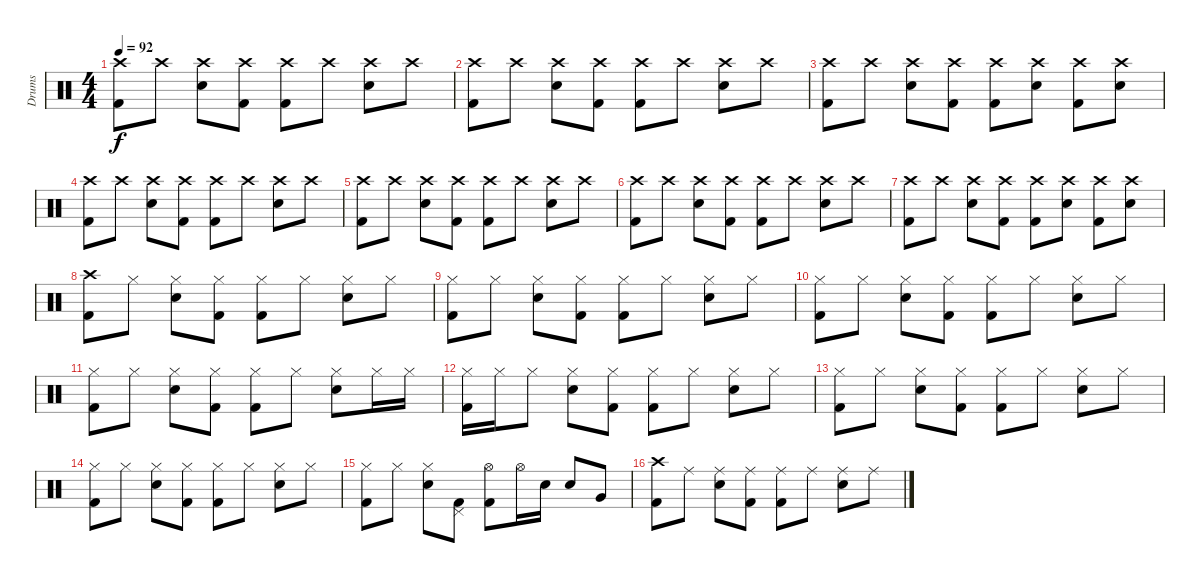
\track ("Drums" "Drums") {instrument percussion}
\staff {score}
\articulation defaults
\ts (4 4)
\tempo 92
\clef neutral
\ks c
("Crash high (hit)" "Kick (hit) 2").8{dy f} "Crash high (hit)".8 ("Crash high (hit)" "Snare (hit) 2").8 ("Crash high (hit)" "Kick (hit) 2").8 ("Crash high (hit)" "Kick (hit) 2").8 "Crash high (hit)".8 ("Crash high (hit)" "Snare (hit) 2").8 "Crash high (hit)".8 |
("Crash high (hit)" "Kick (hit) 2").8 "Crash high (hit)".8 ("Crash high (hit)" "Snare (hit) 2").8 ("Crash high (hit)" "Kick (hit) 2").8 ("Crash high (hit)" "Kick (hit) 2").8 "Crash high (hit)".8 ("Crash high (hit)" "Snare (hit) 2").8 "Crash high (hit)".8 |
("Crash high (hit)" "Kick (hit) 2").8 "Crash high (hit)".8 ("Crash high (hit)" "Snare (hit) 2").8 ("Crash high (hit)" "Kick (hit) 2").8 ("Crash high (hit)" "Kick (hit) 2").8 ("Crash high (hit)" "Snare (hit) 2").8 ("Crash high (hit)" "Kick (hit) 2").8 ("Crash high (hit)" "Snare (hit) 2").8 |
("Crash high (hit)" "Kick (hit) 2").8 "Crash high (hit)".8 ("Crash high (hit)" "Snare (hit) 2").8 ("Crash high (hit)" "Kick (hit) 2").8 ("Crash high (hit)" "Kick (hit) 2").8 "Crash high (hit)".8 ("Crash high (hit)" "Snare (hit) 2").8 "Crash high (hit)".8 |
("Crash high (hit)" "Kick (hit) 2").8 "Crash high (hit)".8 ("Crash high (hit)" "Snare (hit) 2").8 ("Crash high (hit)" "Kick (hit) 2").8 ("Crash high (hit)" "Kick (hit) 2").8 "Crash high (hit)".8 ("Crash high (hit)" "Snare (hit) 2").8 "Crash high (hit)".8 |
("Crash high (hit)" "Kick (hit) 2").8 "Crash high (hit)".8 ("Crash high (hit)" "Snare (hit) 2").8 ("Crash high (hit)" "Kick (hit) 2").8 ("Crash high (hit)" "Kick (hit) 2").8 "Crash high (hit)".8 ("Crash high (hit)" "Snare (hit) 2").8 "Crash high (hit)".8 |
("Crash high (hit)" "Kick (hit) 2").8 "Crash high (hit)".8 ("Crash high (hit)" "Snare (hit) 2").8 ("Crash high (hit)" "Kick (hit) 2").8 ("Crash high (hit)" "Kick (hit) 2").8 ("Crash high (hit)" "Snare (hit) 2").8 ("Crash high (hit)" "Kick (hit) 2").8 ("Crash high (hit)" "Snare (hit) 2").8 |
("Crash high (hit)" "Kick (hit) 2").8 "Hi-Hat (closed)".8 ("Hi-Hat (closed)" "Snare (hit) 2").8 ("Hi-Hat (closed)" "Kick (hit) 2").8 ("Hi-Hat (closed)" "Kick (hit) 2").8 "Hi-Hat (closed)".8 ("Hi-Hat (closed)" "Snare (hit) 2").8 "Hi-Hat (closed)".8 |
("Hi-Hat (closed)" "Kick (hit) 2").8 "Hi-Hat (closed)".8 ("Hi-Hat (closed)" "Snare (hit) 2").8 ("Hi-Hat (closed)" "Kick (hit) 2").8 ("Hi-Hat (closed)" "Kick (hit) 2").8 "Hi-Hat (closed)".8 ("Hi-Hat (closed)" "Snare (hit) 2").8 "Hi-Hat (closed)".8 |
("Hi-Hat (closed)" "Kick (hit) 2").8 "Hi-Hat (closed)".8 ("Hi-Hat (closed)" "Snare (hit) 2").8 ("Hi-Hat (closed)" "Kick (hit) 2").8 ("Hi-Hat (closed)" "Kick (hit) 2").8 "Hi-Hat (closed)".8 ("Hi-Hat (closed)" "Snare (hit) 2").8 "Hi-Hat (closed)".8 |
("Hi-Hat (closed)" "Kick (hit) 2").8 "Hi-Hat (closed)".8 ("Hi-Hat (closed)" "Snare (hit) 2").8 ("Hi-Hat (closed)" "Kick (hit) 2").8 ("Hi-Hat (closed)" "Kick (hit) 2").8 "Hi-Hat (closed)".8 ("Hi-Hat (closed)" "Snare (hit) 2").8 "Hi-Hat (closed)".16 "Hi-Hat (closed)".16 |
("Hi-Hat (closed)" "Kick (hit) 2").16 "Hi-Hat (closed)".16 "Hi-Hat (closed)".8 ("Hi-Hat (closed)" "Snare (hit) 2").8 ("Hi-Hat (closed)" "Kick (hit) 2").8 ("Hi-Hat (closed)" "Kick (hit) 2").8 "Hi-Hat (closed)".8 ("Hi-Hat (closed)" "Snare (hit) 2").8 "Hi-Hat (closed)".8 |
("Hi-Hat (closed)" "Kick (hit) 2").8 "Hi-Hat (closed)".8 ("Hi-Hat (closed)" "Snare (hit) 2").8 ("Hi-Hat (closed)" "Kick (hit) 2").8 ("Hi-Hat (closed)" "Kick (hit) 2").8 "Hi-Hat (closed)".8 ("Hi-Hat (closed)" "Snare (hit) 2").8 "Hi-Hat (closed)".8 |
("Hi-Hat (closed)" "Kick (hit) 2").8 "Hi-Hat (closed)".8 ("Hi-Hat (closed)" "Snare (hit) 2").8 ("Hi-Hat (closed)" "Kick (hit) 2").8 ("Hi-Hat (closed)" "Kick (hit) 2").8 "Hi-Hat (closed)".8 ("Hi-Hat (closed)" "Snare (hit) 2").8 "Hi-Hat (closed)".8 |
("Hi-Hat (closed)" "Kick (hit) 2").8 "Hi-Hat (closed)".8 ("Hi-Hat (closed)" "Snare (hit) 2").8 ("Pedal Hi-Hat (hit)" "Kick (hit) 2").8 ("Hi-Hat (open)" "Kick (hit) 2").8 "Hi-Hat (open)".16 "Snare (hit) 2".16 "Snare (hit) 2".8 "Very Low Tom (hit)".8 |
("Crash high (hit)" "Kick (hit) 2").8 "Ride (middle)".8 ("Ride (middle)" "Snare (hit) 2").8 ("Ride (middle)" "Kick (hit) 2").8 ("Ride (middle)" "Kick (hit) 2").8 "Ride (middle)".8 ("Ride (middle)" "Snare (hit) 2").8 "Ride (middle)".8
